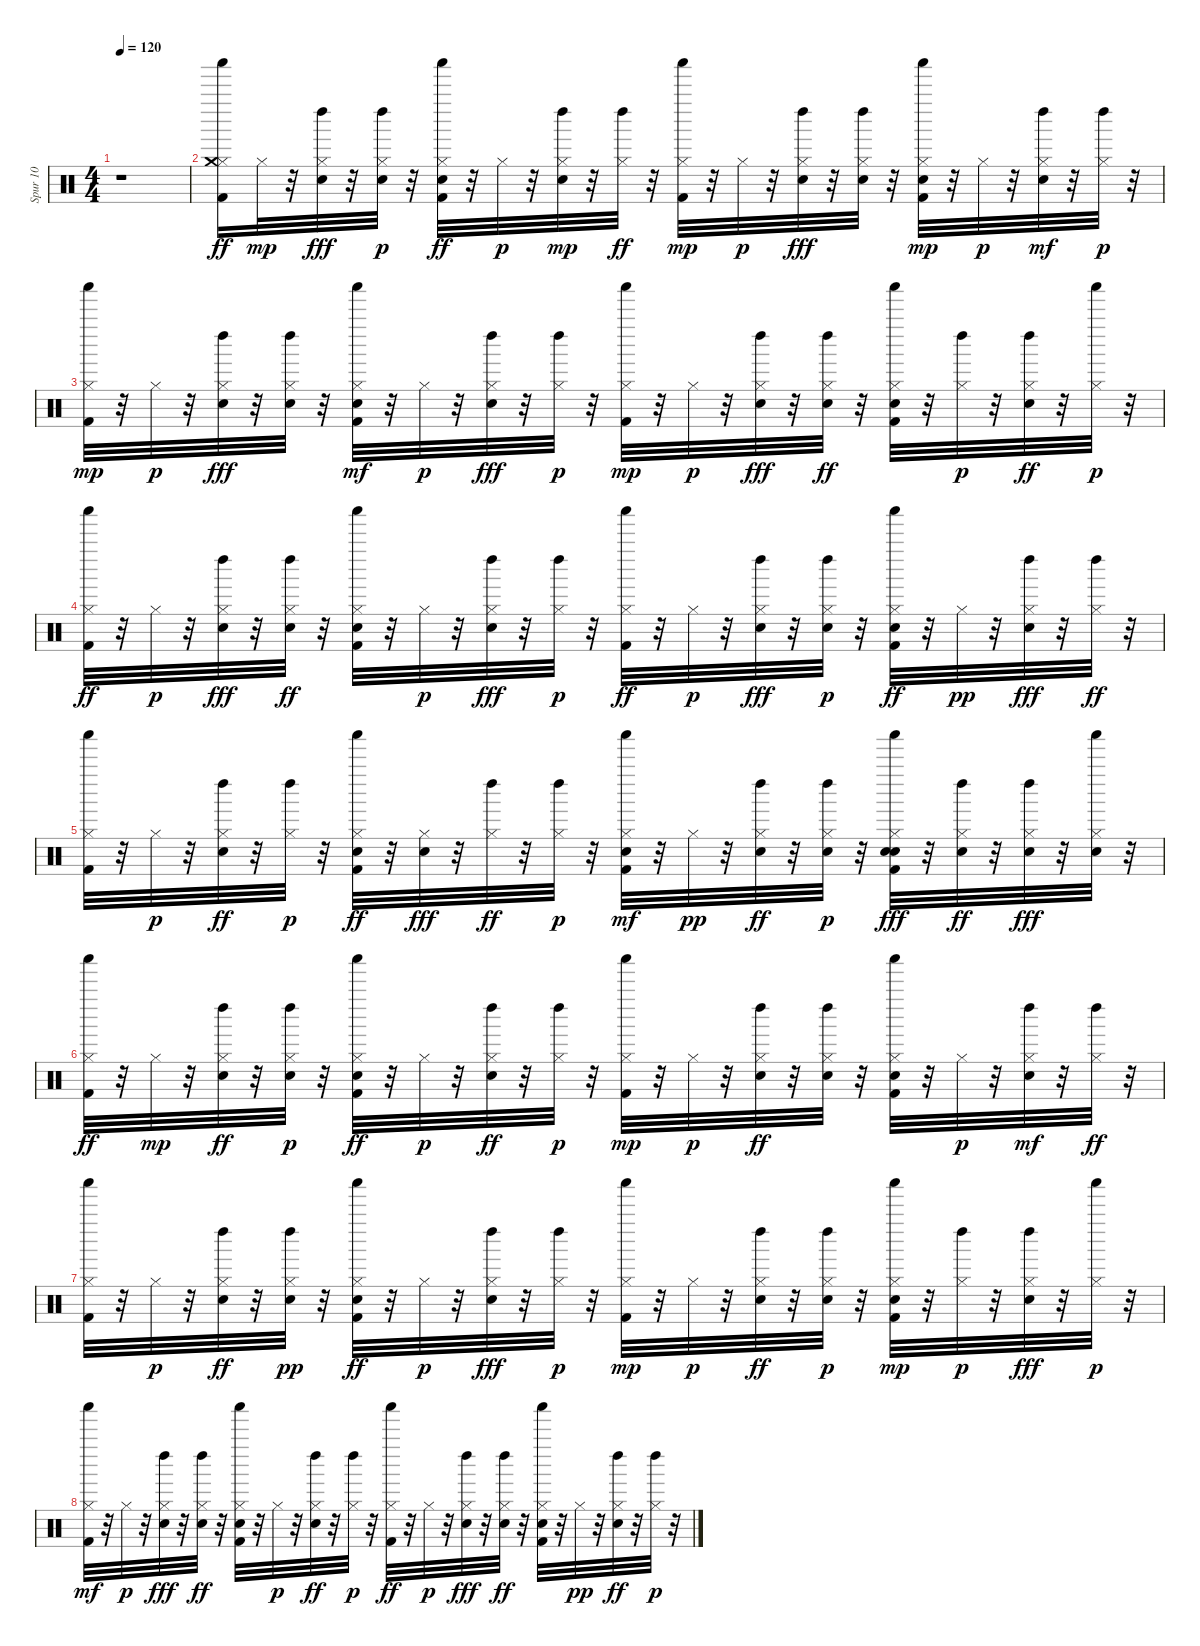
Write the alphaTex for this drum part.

\track ("Spur 10" "Spur 10") {instrument percussion}
\staff {score}
\articulation defaults
\ts (4 4)
\tempo 120
\clef neutral
\ks c
r.1{dy ff} |
("Hi-Hat (closed)" "Crash medium (hit)" "Shaker (hit)" "Kick (hit) 2").16 "Hi-Hat (closed)".32{dy mp} r.32 ("Hi-Hat (closed)" "Left Maraca (hit)" "Electric Snare (hit)").32{dy fff} r.32 ("Left Maraca (hit)" "Hi-Hat (closed)" "Electric Snare (hit)").32{dy p} r.32 ("Hi-Hat (closed)" "Shaker (hit)" "Kick (hit) 2" "Snare (hit) 2").32{dy ff} r.32 "Hi-Hat (closed)".32{dy p} r.32 ("Hi-Hat (closed)" "Electric Snare (hit)" "Left Maraca (hit)").32{dy mp} r.32 ("Hi-Hat (closed)" "Left Maraca (hit)").32{dy ff} r.32 ("Shaker (hit)" "Kick (hit) 2" "Hi-Hat (closed)").32{dy mp} r.32 "Hi-Hat (closed)".32{dy p} r.32 ("Hi-Hat (closed)" "Left Maraca (hit)" "Electric Snare (hit)").32{dy fff} r.32 ("Hi-Hat (closed)" "Left Maraca (hit)" "Electric Snare (hit)").32 r.32 ("Shaker (hit)" "Kick (hit) 2" "Snare (hit) 2" "Hi-Hat (closed)").32{dy mp} r.32 "Hi-Hat (closed)".32{dy p} r.32 ("Electric Snare (hit)" "Hi-Hat (closed)" "Left Maraca (hit)").32{dy mf} r.32 ("Left Maraca (hit)" "Hi-Hat (closed)").32{dy p} r.32 |
("Shaker (hit)" "Kick (hit) 2" "Hi-Hat (closed)").32{dy mp} r.32 "Hi-Hat (closed)".32{dy p} r.32 ("Hi-Hat (closed)" "Left Maraca (hit)" "Electric Snare (hit)").32{dy fff} r.32 ("Left Maraca (hit)" "Hi-Hat (closed)" "Electric Snare (hit)").32 r.32 ("Snare (hit) 2" "Kick (hit) 2" "Hi-Hat (closed)" "Shaker (hit)").32{dy mf} r.32 "Hi-Hat (closed)".32{dy p} r.32 ("Hi-Hat (closed)" "Left Maraca (hit)" "Electric Snare (hit)").32{dy fff} r.32 ("Left Maraca (hit)" "Hi-Hat (closed)").32{dy p} r.32 ("Kick (hit) 2" "Hi-Hat (closed)" "Shaker (hit)").32{dy mp} r.32 "Hi-Hat (closed)".32{dy p} r.32 ("Left Maraca (hit)" "Hi-Hat (closed)" "Electric Snare (hit)").32{dy fff} r.32 ("Hi-Hat (closed)" "Left Maraca (hit)" "Electric Snare (hit)").32{dy ff} r.32 ("Snare (hit) 2" "Hi-Hat (closed)" "Kick (hit) 2" "Shaker (hit)").32 r.32 ("Hi-Hat (closed)" "Left Maraca (hit)").32{dy p} r.32 ("Left Maraca (hit)" "Electric Snare (hit)" "Hi-Hat (closed)").32{dy ff} r.32 ("Hi-Hat (closed)" "Shaker (hit)").32{dy p} r.32 |
("Hi-Hat (closed)" "Kick (hit) 2" "Shaker (hit)").32{dy ff} r.32 "Hi-Hat (closed)".32{dy p} r.32 ("Left Maraca (hit)" "Hi-Hat (closed)" "Electric Snare (hit)").32{dy fff} r.32 ("Left Maraca (hit)" "Hi-Hat (closed)" "Electric Snare (hit)").32{dy ff} r.32 ("Kick (hit) 2" "Hi-Hat (closed)" "Snare (hit) 2" "Shaker (hit)").32 r.32 "Hi-Hat (closed)".32{dy p} r.32 ("Left Maraca (hit)" "Hi-Hat (closed)" "Electric Snare (hit)").32{dy fff} r.32 ("Left Maraca (hit)" "Hi-Hat (closed)").32{dy p} r.32 ("Shaker (hit)" "Kick (hit) 2" "Hi-Hat (closed)").32{dy ff} r.32 "Hi-Hat (closed)".32{dy p} r.32 ("Hi-Hat (closed)" "Electric Snare (hit)" "Left Maraca (hit)").32{dy fff} r.32 ("Hi-Hat (closed)" "Left Maraca (hit)" "Electric Snare (hit)").32{dy p} r.32 ("Shaker (hit)" "Hi-Hat (closed)" "Snare (hit) 2" "Kick (hit) 2").32{dy ff} r.32 "Hi-Hat (closed)".32{dy pp} r.32 ("Left Maraca (hit)" "Hi-Hat (closed)" "Electric Snare (hit)").32{dy fff} r.32 ("Hi-Hat (closed)" "Left Maraca (hit)").32{dy ff} r.32 |
("Kick (hit) 2" "Shaker (hit)" "Hi-Hat (closed)").32 r.32 "Hi-Hat (closed)".32{dy p} r.32 ("Electric Snare (hit)" "Hi-Hat (closed)" "Left Maraca (hit)").32{dy ff} r.32 ("Left Maraca (hit)" "Hi-Hat (closed)").32{dy p} r.32 ("Hi-Hat (closed)" "Snare (hit) 2" "Kick (hit) 2" "Shaker (hit)").32{dy ff} r.32 ("Hi-Hat (closed)" "Electric Snare (hit)").32{dy fff} r.32 ("Left Maraca (hit)" "Hi-Hat (closed)").32{dy ff} r.32 ("Left Maraca (hit)" "Hi-Hat (closed)").32{dy p} r.32 ("Kick (hit) 2" "Electric Snare (hit)" "Hi-Hat (closed)" "Shaker (hit)").32{dy mf} r.32 "Hi-Hat (closed)".32{dy pp} r.32 ("Electric Snare (hit)" "Hi-Hat (closed)" "Left Maraca (hit)").32{dy ff} r.32 ("Left Maraca (hit)" "Electric Snare (hit)" "Hi-Hat (closed)").32{dy p} r.32 ("Kick (hit) 2" "Shaker (hit)" "Snare (hit) 2" "Electric Snare (hit)" "Hi-Hat (closed)").32{dy fff} r.32 ("Hi-Hat (closed)" "Electric Snare (hit)" "Left Maraca (hit)").32{dy ff} r.32 ("Hi-Hat (closed)" "Left Maraca (hit)" "Electric Snare (hit)").32{dy fff} r.32 ("Hi-Hat (closed)" "Electric Snare (hit)" "Shaker (hit)").32 r.32 |
("Shaker (hit)" "Kick (hit) 2" "Hi-Hat (closed)").32{dy ff} r.32 "Hi-Hat (closed)".32{dy mp} r.32 ("Left Maraca (hit)" "Electric Snare (hit)" "Hi-Hat (closed)").32{dy ff} r.32 ("Electric Snare (hit)" "Hi-Hat (closed)" "Left Maraca (hit)").32{dy p} r.32 ("Kick (hit) 2" "Hi-Hat (closed)" "Shaker (hit)" "Snare (hit) 2").32{dy ff} r.32 "Hi-Hat (closed)".32{dy p} r.32 ("Left Maraca (hit)" "Electric Snare (hit)" "Hi-Hat (closed)").32{dy ff} r.32 ("Left Maraca (hit)" "Hi-Hat (closed)").32{dy p} r.32 ("Kick (hit) 2" "Shaker (hit)" "Hi-Hat (closed)").32{dy mp} r.32 "Hi-Hat (closed)".32{dy p} r.32 ("Left Maraca (hit)" "Electric Snare (hit)" "Hi-Hat (closed)").32{dy ff} r.32 ("Hi-Hat (closed)" "Electric Snare (hit)" "Left Maraca (hit)").32 r.32 ("Shaker (hit)" "Hi-Hat (closed)" "Kick (hit) 2" "Snare (hit) 2").32 r.32 "Hi-Hat (closed)".32{dy p} r.32 ("Electric Snare (hit)" "Hi-Hat (closed)" "Left Maraca (hit)").32{dy mf} r.32 ("Hi-Hat (closed)" "Left Maraca (hit)").32{dy ff} r.32 |
("Hi-Hat (closed)" "Shaker (hit)" "Kick (hit) 2").32 r.32 "Hi-Hat (closed)".32{dy p} r.32 ("Electric Snare (hit)" "Hi-Hat (closed)" "Left Maraca (hit)").32{dy ff} r.32 ("Left Maraca (hit)" "Hi-Hat (closed)" "Electric Snare (hit)").32{dy pp} r.32 ("Kick (hit) 2" "Shaker (hit)" "Hi-Hat (closed)" "Snare (hit) 2").32{dy ff} r.32 "Hi-Hat (closed)".32{dy p} r.32 ("Hi-Hat (closed)" "Left Maraca (hit)" "Electric Snare (hit)").32{dy fff} r.32 ("Left Maraca (hit)" "Hi-Hat (closed)").32{dy p} r.32 ("Kick (hit) 2" "Shaker (hit)" "Hi-Hat (closed)").32{dy mp} r.32 "Hi-Hat (closed)".32{dy p} r.32 ("Left Maraca (hit)" "Hi-Hat (closed)" "Electric Snare (hit)").32{dy ff} r.32 ("Left Maraca (hit)" "Electric Snare (hit)" "Hi-Hat (closed)").32{dy p} r.32 ("Kick (hit) 2" "Snare (hit) 2" "Hi-Hat (closed)" "Shaker (hit)").32{dy mp} r.32 ("Hi-Hat (closed)" "Left Maraca (hit)").32{dy p} r.32 ("Hi-Hat (closed)" "Left Maraca (hit)" "Electric Snare (hit)").32{dy fff} r.32 ("Hi-Hat (closed)" "Shaker (hit)").32{dy p} r.32 |
("Shaker (hit)" "Kick (hit) 2" "Hi-Hat (closed)").32{dy mf} r.32 "Hi-Hat (closed)".32{dy p} r.32 ("Hi-Hat (closed)" "Left Maraca (hit)" "Electric Snare (hit)").32{dy fff} r.32 ("Left Maraca (hit)" "Hi-Hat (closed)" "Electric Snare (hit)").32{dy ff} r.32 ("Shaker (hit)" "Snare (hit) 2" "Hi-Hat (closed)" "Kick (hit) 2").32 r.32 "Hi-Hat (closed)".32{dy p} r.32 ("Electric Snare (hit)" "Left Maraca (hit)" "Hi-Hat (closed)").32{dy ff} r.32 ("Left Maraca (hit)" "Hi-Hat (closed)").32{dy p} r.32 ("Kick (hit) 2" "Shaker (hit)" "Hi-Hat (closed)").32{dy ff} r.32 "Hi-Hat (closed)".32{dy p} r.32 ("Hi-Hat (closed)" "Left Maraca (hit)" "Electric Snare (hit)").32{dy fff} r.32 ("Hi-Hat (closed)" "Left Maraca (hit)" "Electric Snare (hit)").32{dy ff} r.32 ("Snare (hit) 2" "Kick (hit) 2" "Hi-Hat (closed)" "Shaker (hit)").32 r.32 "Hi-Hat (closed)".32{dy pp} r.32 ("Left Maraca (hit)" "Electric Snare (hit)" "Hi-Hat (closed)").32{dy ff} r.32 ("Left Maraca (hit)" "Hi-Hat (closed)").32{dy p} r.32
